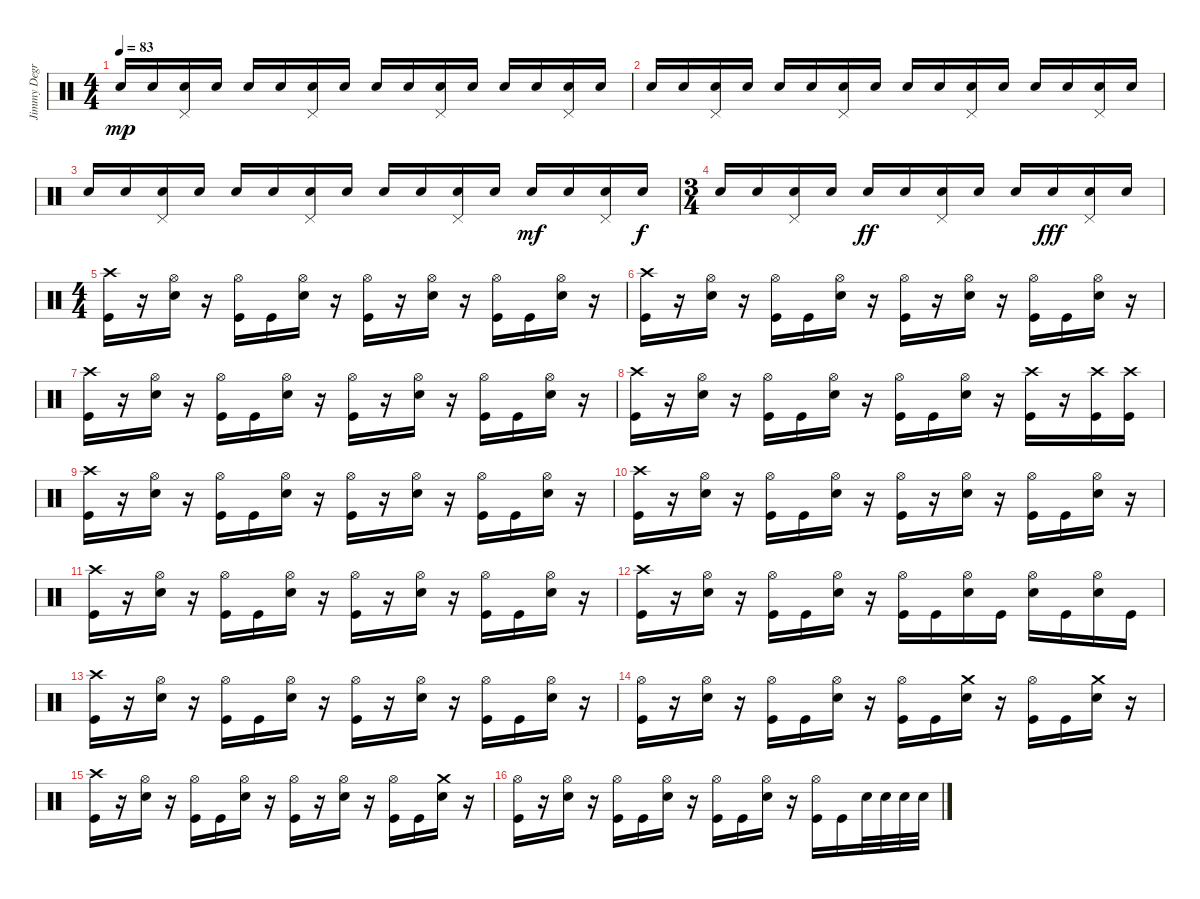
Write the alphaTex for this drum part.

\track ("Jimmy Degrasso" "Jimmy Degr") {instrument percussion}
\staff {score}
\articulation defaults
\ts (4 4)
\tempo 83
\clef neutral
\ks c "Snare (hit) 2".16{dy mp} "Snare (hit) 2".16
("Snare (hit) 2" "Pedal Hi-Hat (hit)").16 "Snare (hit) 2".16 "Snare (hit) 2".16 "Snare (hit) 2".16 ("Snare (hit) 2" "Pedal Hi-Hat (hit)").16 "Snare (hit) 2".16 "Snare (hit) 2".16 "Snare (hit) 2".16 ("Snare (hit) 2" "Pedal Hi-Hat (hit)").16 "Snare (hit) 2".16 "Snare (hit) 2".16 "Snare (hit) 2".16 ("Snare (hit) 2" "Pedal Hi-Hat (hit)").16 "Snare (hit) 2".16 |
"Snare (hit) 2".16 "Snare (hit) 2".16 ("Snare (hit) 2" "Pedal Hi-Hat (hit)").16 "Snare (hit) 2".16 "Snare (hit) 2".16 "Snare (hit) 2".16 ("Snare (hit) 2" "Pedal Hi-Hat (hit)").16 "Snare (hit) 2".16 "Snare (hit) 2".16 "Snare (hit) 2".16 ("Snare (hit) 2" "Pedal Hi-Hat (hit)").16 "Snare (hit) 2".16 "Snare (hit) 2".16 "Snare (hit) 2".16 ("Snare (hit) 2" "Pedal Hi-Hat (hit)").16 "Snare (hit) 2".16 |
"Snare (hit) 2".16 "Snare (hit) 2".16 ("Snare (hit) 2" "Pedal Hi-Hat (hit)").16 "Snare (hit) 2".16 "Snare (hit) 2".16 "Snare (hit) 2".16 ("Snare (hit) 2" "Pedal Hi-Hat (hit)").16 "Snare (hit) 2".16 "Snare (hit) 2".16 "Snare (hit) 2".16 ("Snare (hit) 2" "Pedal Hi-Hat (hit)").16 "Snare (hit) 2".16 "Snare (hit) 2".16{dy mf} "Snare (hit) 2".16 ("Snare (hit) 2" "Pedal Hi-Hat (hit)").16 "Snare (hit) 2".16{dy f} |
\ts (3 4)
"Snare (hit) 2".16 "Snare (hit) 2".16 ("Snare (hit) 2" "Pedal Hi-Hat (hit)").16 "Snare (hit) 2".16 "Snare (hit) 2".16{dy ff} "Snare (hit) 2".16 ("Snare (hit) 2" "Pedal Hi-Hat (hit)").16 "Snare (hit) 2".16 "Snare (hit) 2".16 "Snare (hit) 2".16{dy fff} ("Snare (hit) 2" "Pedal Hi-Hat (hit)").16 "Snare (hit) 2".16 |
\ts (4 4)
("Kick (hit)" "Crash high (hit)").16 r.16 ("Electric Snare (hit)" "Hi-Hat (open)").16 r.16 ("Kick (hit)" "Hi-Hat (open)").16 "Kick (hit)".16 ("Electric Snare (hit)" "Hi-Hat (open)").16 r.16 ("Kick (hit)" "Hi-Hat (open)").16 r.16 ("Electric Snare (hit)" "Hi-Hat (open)").16 r.16 ("Kick (hit)" "Hi-Hat (open)").16 "Kick (hit)".16 ("Electric Snare (hit)" "Hi-Hat (open)").16 r.16 |
("Kick (hit)" "Crash high (hit)").16 r.16 ("Electric Snare (hit)" "Hi-Hat (open)").16 r.16 ("Kick (hit)" "Hi-Hat (open)").16 "Kick (hit)".16 ("Electric Snare (hit)" "Hi-Hat (open)").16 r.16 ("Kick (hit)" "Hi-Hat (open)").16 r.16 ("Electric Snare (hit)" "Hi-Hat (open)").16 r.16 ("Kick (hit)" "Hi-Hat (open)").16 "Kick (hit)".16 ("Electric Snare (hit)" "Hi-Hat (open)").16 r.16 |
("Kick (hit)" "Crash high (hit)").16 r.16 ("Electric Snare (hit)" "Hi-Hat (open)").16 r.16 ("Kick (hit)" "Hi-Hat (open)").16 "Kick (hit)".16 ("Electric Snare (hit)" "Hi-Hat (open)").16 r.16 ("Kick (hit)" "Hi-Hat (open)").16 r.16 ("Electric Snare (hit)" "Hi-Hat (open)").16 r.16 ("Kick (hit)" "Hi-Hat (open)").16 "Kick (hit)".16 ("Electric Snare (hit)" "Hi-Hat (open)").16 r.16 |
("Kick (hit)" "Crash high (hit)").16 r.16 ("Electric Snare (hit)" "Hi-Hat (open)").16 r.16 ("Kick (hit)" "Hi-Hat (open)").16 "Kick (hit)".16 ("Electric Snare (hit)" "Hi-Hat (open)").16 r.16 ("Kick (hit)" "Hi-Hat (open)").16 "Kick (hit)".16 ("Electric Snare (hit)" "Hi-Hat (open)").16 r.16 ("Kick (hit)" "Crash high (hit)").16 r.16 ("Kick (hit)" "Crash high (hit)").16 ("Kick (hit)" "Crash high (hit)").16 |
("Kick (hit)" "Crash high (hit)").16 r.16 ("Electric Snare (hit)" "Hi-Hat (open)").16 r.16 ("Kick (hit)" "Hi-Hat (open)").16 "Kick (hit)".16 ("Electric Snare (hit)" "Hi-Hat (open)").16 r.16 ("Kick (hit)" "Hi-Hat (open)").16 r.16 ("Electric Snare (hit)" "Hi-Hat (open)").16 r.16 ("Kick (hit)" "Hi-Hat (open)").16 "Kick (hit)".16 ("Electric Snare (hit)" "Hi-Hat (open)").16 r.16 |
("Kick (hit)" "Crash high (hit)").16 r.16 ("Electric Snare (hit)" "Hi-Hat (open)").16 r.16 ("Kick (hit)" "Hi-Hat (open)").16 "Kick (hit)".16 ("Electric Snare (hit)" "Hi-Hat (open)").16 r.16 ("Kick (hit)" "Hi-Hat (open)").16 r.16 ("Electric Snare (hit)" "Hi-Hat (open)").16 r.16 ("Kick (hit)" "Hi-Hat (open)").16 "Kick (hit)".16 ("Electric Snare (hit)" "Hi-Hat (open)").16 r.16 |
("Kick (hit)" "Crash high (hit)").16 r.16 ("Electric Snare (hit)" "Hi-Hat (open)").16 r.16 ("Kick (hit)" "Hi-Hat (open)").16 "Kick (hit)".16 ("Electric Snare (hit)" "Hi-Hat (open)").16 r.16 ("Kick (hit)" "Hi-Hat (open)").16 r.16 ("Electric Snare (hit)" "Hi-Hat (open)").16 r.16 ("Kick (hit)" "Hi-Hat (open)").16 "Kick (hit)".16 ("Electric Snare (hit)" "Hi-Hat (open)").16 r.16 |
("Kick (hit)" "Crash high (hit)").16 r.16 ("Electric Snare (hit)" "Hi-Hat (open)").16 r.16 ("Kick (hit)" "Hi-Hat (open)").16 "Kick (hit)".16 ("Electric Snare (hit)" "Hi-Hat (open)").16 r.16 ("Kick (hit)" "Hi-Hat (open)").16 "Kick (hit)".16 ("Electric Snare (hit)" "Hi-Hat (open)").16 "Kick (hit)".16 ("Electric Snare (hit)" "Hi-Hat (open)").16 "Kick (hit)".16 ("Electric Snare (hit)" "Hi-Hat (open)").16 "Kick (hit)".16 |
("Kick (hit)" "Crash high (hit)").16 r.16 ("Electric Snare (hit)" "Hi-Hat (open)").16 r.16 ("Kick (hit)" "Hi-Hat (open)").16 "Kick (hit)".16 ("Electric Snare (hit)" "Hi-Hat (open)").16 r.16 ("Kick (hit)" "Hi-Hat (open)").16 r.16 ("Electric Snare (hit)" "Hi-Hat (open)").16 r.16 ("Kick (hit)" "Hi-Hat (open)").16 "Kick (hit)".16 ("Electric Snare (hit)" "Hi-Hat (open)").16 r.16 |
("Kick (hit)" "Hi-Hat (open)").16 r.16 ("Electric Snare (hit)" "Hi-Hat (open)").16 r.16 ("Kick (hit)" "Hi-Hat (open)").16 "Kick (hit)".16 ("Electric Snare (hit)" "Hi-Hat (open)").16 r.16 ("Kick (hit)" "Hi-Hat (open)").16 "Kick (hit)".16 ("Electric Snare (hit)" "Crash medium (hit)").16 r.16 ("Kick (hit)" "Hi-Hat (open)").16 "Kick (hit)".16 ("Electric Snare (hit)" "Crash medium (hit)").16 r.16 |
("Kick (hit)" "Crash high (hit)").16 r.16 ("Electric Snare (hit)" "Hi-Hat (open)").16 r.16 ("Kick (hit)" "Hi-Hat (open)").16 "Kick (hit)".16 ("Electric Snare (hit)" "Hi-Hat (open)").16 r.16 ("Kick (hit)" "Hi-Hat (open)").16 r.16 ("Electric Snare (hit)" "Hi-Hat (open)").16 r.16 ("Kick (hit)" "Hi-Hat (open)").16 "Kick (hit)".16 ("Electric Snare (hit)" "Crash medium (hit)").16 r.16 |
("Kick (hit)" "Hi-Hat (open)").16 r.16 ("Electric Snare (hit)" "Hi-Hat (open)").16 r.16 ("Kick (hit)" "Hi-Hat (open)").16 "Kick (hit)".16 ("Electric Snare (hit)" "Hi-Hat (open)").16 r.16 ("Kick (hit)" "Hi-Hat (open)").16 "Kick (hit)".16 ("Electric Snare (hit)" "Hi-Hat (open)").16 r.16 ("Kick (hit)" "Hi-Hat (open)").16 "Kick (hit)".16 "Electric Snare (hit)".32 "Electric Snare (hit)".32 "Electric Snare (hit)".32 "Electric Snare (hit)".32
